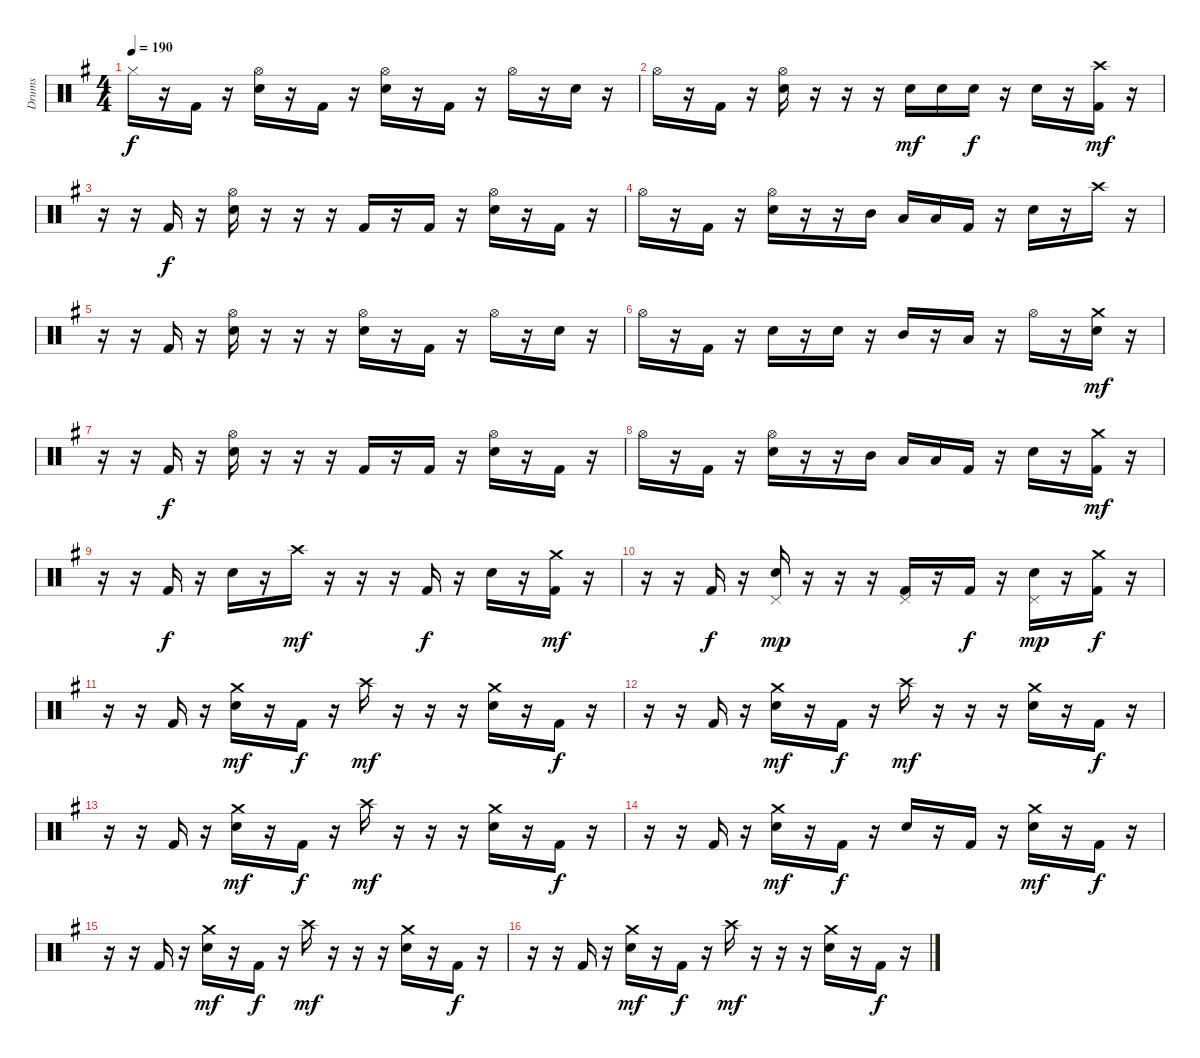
\track ("Drums" "Drums") {instrument percussion}
\staff {score}
\articulation defaults
\ts (4 4)
\tempo 190
\clef neutral
\ks g "Hi-Hat (closed)".16{dy f}
r.16 "Kick (hit) 2".16 r.16 ("Hi-Hat (open)" "Snare (hit) 2").16 r.16 "Kick (hit) 2".16 r.16 ("Hi-Hat (open)" "Snare (hit) 2").16 r.16 "Kick (hit) 2".16 r.16 "Hi-Hat (open)".16 r.16 "Snare (hit) 2".16 r.16 |
"Hi-Hat (open)".16 r.16 "Kick (hit) 2".16 r.16 ("Hi-Hat (open)" "Snare (hit) 2").16 r.16 r.16 r.16 "Snare (hit) 2".16{dy mf} "Snare (hit) 2".16 "Snare (hit) 2".16{dy f} r.16 "Snare (hit) 2".16 r.16 ("Crash high (hit)" "Kick (hit) 2").16{dy mf} r.16 |
r.16 r.16 "Kick (hit) 2".16{dy f} r.16 ("Hi-Hat (open)" "Snare (hit) 2").16 r.16 r.16 r.16 "Kick (hit) 2".16 r.16 "Kick (hit) 2".16 r.16 ("Hi-Hat (open)" "Snare (hit) 2").16 r.16 "Kick (hit) 2".16 r.16 |
"Hi-Hat (open)".16 r.16 "Kick (hit) 2".16 r.16 ("Hi-Hat (open)" "Snare (hit) 2").16 r.16 r.16 "Mid Tom (hit)".16 "Low Tom (hit)".16 "Low Tom (hit)".16 "Kick (hit) 2".16 r.16 "Snare (hit) 2".16 r.16 "Crash high (hit)".16 r.16 |
r.16 r.16 "Kick (hit) 2".16 r.16 ("Hi-Hat (open)" "Snare (hit) 2").16 r.16 r.16 r.16 ("Hi-Hat (open)" "Snare (hit) 2").16 r.16 "Kick (hit) 2".16 r.16 "Hi-Hat (open)".16 r.16 "Snare (hit) 2".16 r.16 |
"Hi-Hat (open)".16 r.16 "Kick (hit) 2".16 r.16 "Snare (hit) 2".16 r.16 "Snare (hit) 2".16 r.16 "Mid Tom (hit)".16 r.16 "Low Tom (hit)".16 r.16 "Hi-Hat (open)".16 r.16 ("Crash medium (hit)" "Snare (hit) 2").16{dy mf} r.16 |
r.16 r.16 "Kick (hit) 2".16{dy f} r.16 ("Hi-Hat (open)" "Snare (hit) 2").16 r.16 r.16 r.16 "Kick (hit) 2".16 r.16 "Kick (hit) 2".16 r.16 ("Hi-Hat (open)" "Snare (hit) 2").16 r.16 "Kick (hit) 2".16 r.16 |
"Hi-Hat (open)".16 r.16 "Kick (hit) 2".16 r.16 ("Hi-Hat (open)" "Snare (hit) 2").16 r.16 r.16 "Mid Tom (hit)".16 "Low Tom (hit)".16 "Low Tom (hit)".16 "Kick (hit) 2".16 r.16 "Snare (hit) 2".16 r.16 ("Crash medium (hit)" "Kick (hit) 2").16{dy mf} r.16 |
r.16 r.16 "Kick (hit) 2".16{dy f} r.16 "Snare (hit) 2".16 r.16 "Crash high (hit)".16{dy mf} r.16 r.16 r.16 "Kick (hit) 2".16{dy f} r.16 "Snare (hit) 2".16 r.16 ("Crash medium (hit)" "Kick (hit) 2").16{dy mf} r.16 |
r.16 r.16 "Kick (hit) 2".16{dy f} r.16 ("Pedal Hi-Hat (hit)" "Snare (hit) 2").16{dy mp} r.16 r.16 r.16 ("Pedal Hi-Hat (hit)" "Kick (hit) 2").16 r.16 "Kick (hit) 2".16{dy f} r.16 ("Pedal Hi-Hat (hit)" "Snare (hit) 2").16{dy mp} r.16 ("Crash medium (hit)" "Kick (hit) 2").16{dy f} r.16 |
r.16 r.16 "Kick (hit) 2".16 r.16 ("Crash medium (hit)" "Snare (hit) 2").16{dy mf} r.16 "Kick (hit) 2".16{dy f} r.16 "Crash high (hit)".16{dy mf} r.16 r.16 r.16 ("Crash medium (hit)" "Snare (hit) 2").16 r.16 "Kick (hit) 2".16{dy f} r.16 |
r.16 r.16 "Kick (hit) 2".16 r.16 ("Crash medium (hit)" "Snare (hit) 2").16{dy mf} r.16 "Kick (hit) 2".16{dy f} r.16 "Crash high (hit)".16{dy mf} r.16 r.16 r.16 ("Crash medium (hit)" "Snare (hit) 2").16 r.16 "Kick (hit) 2".16{dy f} r.16 |
r.16 r.16 "Kick (hit) 2".16 r.16 ("Crash medium (hit)" "Snare (hit) 2").16{dy mf} r.16 "Kick (hit) 2".16{dy f} r.16 "Crash high (hit)".16{dy mf} r.16 r.16 r.16 ("Crash medium (hit)" "Snare (hit) 2").16 r.16 "Kick (hit) 2".16{dy f} r.16 |
r.16 r.16 "Kick (hit) 2".16 r.16 ("Crash medium (hit)" "Snare (hit) 2").16{dy mf} r.16 "Kick (hit) 2".16{dy f} r.16 "Snare (hit) 2".16 r.16 "Kick (hit) 2".16 r.16 ("Crash medium (hit)" "Snare (hit) 2").16{dy mf} r.16 "Kick (hit) 2".16{dy f} r.16 |
r.16 r.16 "Kick (hit) 2".16 r.16 ("Crash medium (hit)" "Snare (hit) 2").16{dy mf} r.16 "Kick (hit) 2".16{dy f} r.16 "Crash high (hit)".16{dy mf} r.16 r.16 r.16 ("Crash medium (hit)" "Snare (hit) 2").16 r.16 "Kick (hit) 2".16{dy f} r.16 |
r.16 r.16 "Kick (hit) 2".16 r.16 ("Crash medium (hit)" "Snare (hit) 2").16{dy mf} r.16 "Kick (hit) 2".16{dy f} r.16 "Crash high (hit)".16{dy mf} r.16 r.16 r.16 ("Crash medium (hit)" "Snare (hit) 2").16 r.16 "Kick (hit) 2".16{dy f} r.16
